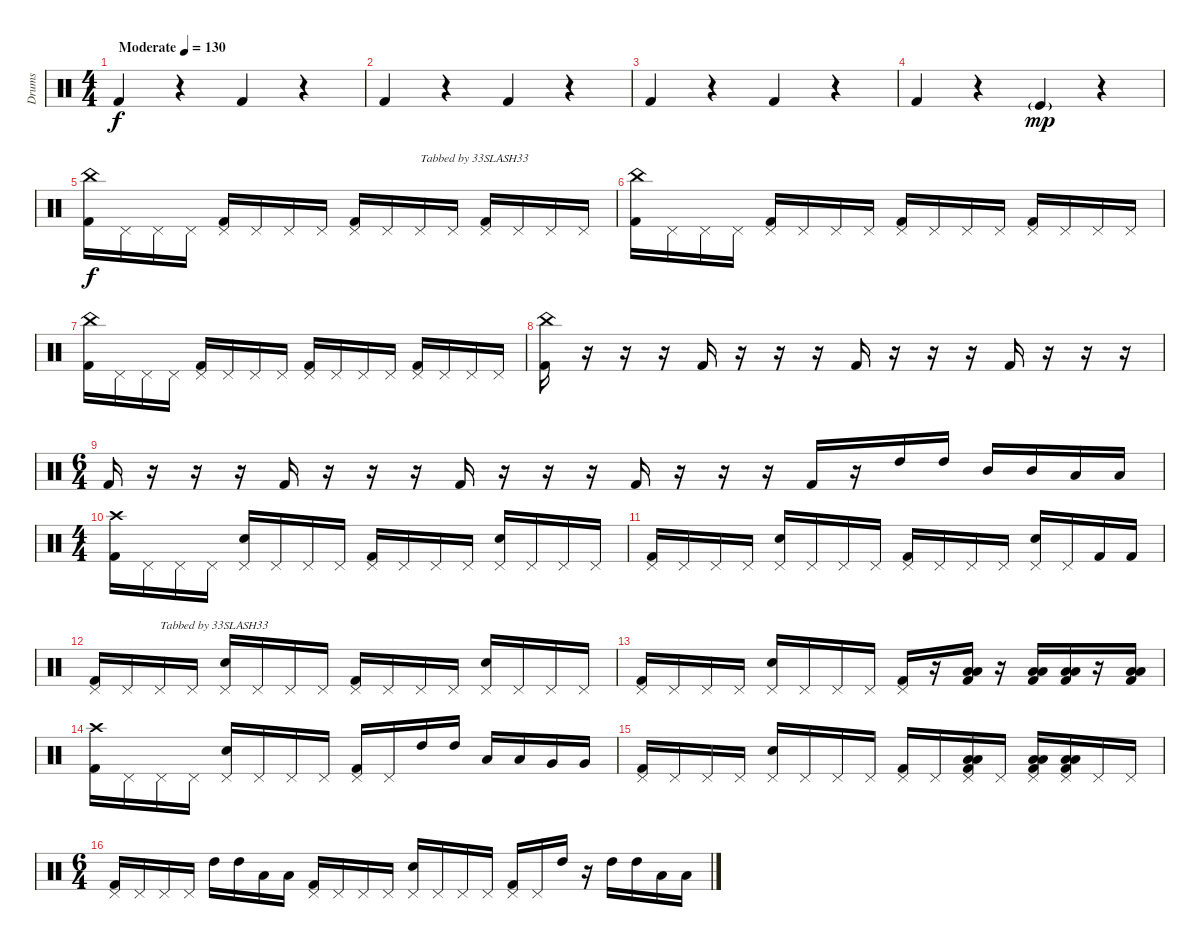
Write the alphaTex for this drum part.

\track ("Drums" "Drums") {instrument percussion}
\staff {score}
\articulation defaults
\ts (4 4)
\tempo (130 "Moderate")
\clef neutral
\ks c "Kick (hit) 2".4{dy f}
r.4 "Kick (hit) 2".4 r.4 |
"Kick (hit) 2".4 r.4 "Kick (hit) 2".4 r.4 |
"Kick (hit) 2".4 r.4 "Kick (hit) 2".4 r.4 |
"Kick (hit) 2".4 r.4 "Kick (hit)"{g}.4{dy mp} r.4 |
("China (hit)" "Kick (hit) 2").16{dy f} "Pedal Hi-Hat (hit)".16 "Pedal Hi-Hat (hit)".16 "Pedal Hi-Hat (hit)".16 ("Pedal Hi-Hat (hit)" "Kick (hit) 2").16 "Pedal Hi-Hat (hit)".16 "Pedal Hi-Hat (hit)".16 "Pedal Hi-Hat (hit)".16 ("Pedal Hi-Hat (hit)" "Kick (hit) 2").16 "Pedal Hi-Hat (hit)".16 "Pedal Hi-Hat (hit)".16{txt "Tabbed by 33SLASH33"} "Pedal Hi-Hat (hit)".16 ("Pedal Hi-Hat (hit)" "Kick (hit) 2").16 "Pedal Hi-Hat (hit)".16 "Pedal Hi-Hat (hit)".16 "Pedal Hi-Hat (hit)".16 |
("China (hit)" "Kick (hit) 2").16 "Pedal Hi-Hat (hit)".16 "Pedal Hi-Hat (hit)".16 "Pedal Hi-Hat (hit)".16 ("Pedal Hi-Hat (hit)" "Kick (hit) 2").16 "Pedal Hi-Hat (hit)".16 "Pedal Hi-Hat (hit)".16 "Pedal Hi-Hat (hit)".16 ("Pedal Hi-Hat (hit)" "Kick (hit) 2").16 "Pedal Hi-Hat (hit)".16 "Pedal Hi-Hat (hit)".16 "Pedal Hi-Hat (hit)".16 ("Pedal Hi-Hat (hit)" "Kick (hit) 2").16 "Pedal Hi-Hat (hit)".16 "Pedal Hi-Hat (hit)".16 "Pedal Hi-Hat (hit)".16 |
("China (hit)" "Kick (hit) 2").16 "Pedal Hi-Hat (hit)".16 "Pedal Hi-Hat (hit)".16 "Pedal Hi-Hat (hit)".16 ("Pedal Hi-Hat (hit)" "Kick (hit) 2").16 "Pedal Hi-Hat (hit)".16 "Pedal Hi-Hat (hit)".16 "Pedal Hi-Hat (hit)".16 ("Pedal Hi-Hat (hit)" "Kick (hit) 2").16 "Pedal Hi-Hat (hit)".16 "Pedal Hi-Hat (hit)".16 "Pedal Hi-Hat (hit)".16 ("Pedal Hi-Hat (hit)" "Kick (hit) 2").16 "Pedal Hi-Hat (hit)".16 "Pedal Hi-Hat (hit)".16 "Pedal Hi-Hat (hit)".16 |
("China (hit)" "Kick (hit) 2").16 r.16 r.16 r.16 "Kick (hit) 2".16 r.16 r.16 r.16 "Kick (hit) 2".16 r.16 r.16 r.16 "Kick (hit) 2".16 r.16 r.16 r.16 |
\ts (6 4)
"Kick (hit) 2".16 r.16 r.16 r.16 "Kick (hit) 2".16 r.16 r.16 r.16 "Kick (hit) 2".16 r.16 r.16 r.16 "Kick (hit) 2".16 r.16 r.16 r.16 "Kick (hit) 2".16 r.16 "High Tom (hit)".16 "High Tom (hit)".16 "Mid Tom (hit)".16 "Mid Tom (hit)".16 "Low Tom (hit)".16 "Low Tom (hit)".16 |
\ts (4 4)
("Crash high (hit)" "Kick (hit) 2").16 "Pedal Hi-Hat (hit)".16 "Pedal Hi-Hat (hit)".16 "Pedal Hi-Hat (hit)".16 ("Pedal Hi-Hat (hit)" "Snare (hit) 2").16 "Pedal Hi-Hat (hit)".16 "Pedal Hi-Hat (hit)".16 "Pedal Hi-Hat (hit)".16 ("Pedal Hi-Hat (hit)" "Kick (hit) 2").16 "Pedal Hi-Hat (hit)".16 "Pedal Hi-Hat (hit)".16 "Pedal Hi-Hat (hit)".16 ("Pedal Hi-Hat (hit)" "Snare (hit) 2").16 "Pedal Hi-Hat (hit)".16 "Pedal Hi-Hat (hit)".16 "Pedal Hi-Hat (hit)".16 |
("Pedal Hi-Hat (hit)" "Kick (hit) 2").16 "Pedal Hi-Hat (hit)".16 "Pedal Hi-Hat (hit)".16 "Pedal Hi-Hat (hit)".16 ("Pedal Hi-Hat (hit)" "Snare (hit) 2").16 "Pedal Hi-Hat (hit)".16 "Pedal Hi-Hat (hit)".16 "Pedal Hi-Hat (hit)".16 ("Pedal Hi-Hat (hit)" "Kick (hit) 2").16 "Pedal Hi-Hat (hit)".16 "Pedal Hi-Hat (hit)".16 "Pedal Hi-Hat (hit)".16 ("Pedal Hi-Hat (hit)" "Snare (hit) 2").16 "Pedal Hi-Hat (hit)".16 "Kick (hit) 2".16 "Kick (hit) 2".16 |
("Pedal Hi-Hat (hit)" "Kick (hit) 2").16 "Pedal Hi-Hat (hit)".16 "Pedal Hi-Hat (hit)".16{txt "Tabbed by 33SLASH33"} "Pedal Hi-Hat (hit)".16 ("Pedal Hi-Hat (hit)" "Snare (hit) 2").16 "Pedal Hi-Hat (hit)".16 "Pedal Hi-Hat (hit)".16 "Pedal Hi-Hat (hit)".16 ("Pedal Hi-Hat (hit)" "Kick (hit) 2").16 "Pedal Hi-Hat (hit)".16 "Pedal Hi-Hat (hit)".16 "Pedal Hi-Hat (hit)".16 ("Pedal Hi-Hat (hit)" "Snare (hit) 2").16 "Pedal Hi-Hat (hit)".16 "Pedal Hi-Hat (hit)".16 "Pedal Hi-Hat (hit)".16 |
("Pedal Hi-Hat (hit)" "Kick (hit) 2").16 "Pedal Hi-Hat (hit)".16 "Pedal Hi-Hat (hit)".16 "Pedal Hi-Hat (hit)".16 ("Pedal Hi-Hat (hit)" "Snare (hit) 2").16 "Pedal Hi-Hat (hit)".16 "Pedal Hi-Hat (hit)".16 "Pedal Hi-Hat (hit)".16 ("Pedal Hi-Hat (hit)" "Kick (hit) 2").16 r.16 ("Low Tom (hit)" "Low Floor Tom (hit)" "Kick (hit) 2").16 r.16 ("Low Tom (hit)" "Low Floor Tom (hit)" "Kick (hit) 2").16 ("Low Tom (hit)" "Low Floor Tom (hit)" "Kick (hit) 2").16 r.16 ("Low Tom (hit)" "Low Floor Tom (hit)" "Kick (hit) 2").16 |
("Crash high (hit)" "Kick (hit) 2").16 "Pedal Hi-Hat (hit)".16 "Pedal Hi-Hat (hit)".16 "Pedal Hi-Hat (hit)".16 ("Pedal Hi-Hat (hit)" "Snare (hit) 2").16 "Pedal Hi-Hat (hit)".16 "Pedal Hi-Hat (hit)".16 "Pedal Hi-Hat (hit)".16 ("Pedal Hi-Hat (hit)" "Kick (hit) 2").16 "Pedal Hi-Hat (hit)".16 "High Tom (hit)".16 "High Tom (hit)".16 "Low Tom (hit)".16 "Low Tom (hit)".16 "Very Low Tom (hit)".16 "Very Low Tom (hit)".16 |
("Pedal Hi-Hat (hit)" "Kick (hit) 2").16 "Pedal Hi-Hat (hit)".16 "Pedal Hi-Hat (hit)".16 "Pedal Hi-Hat (hit)".16 ("Pedal Hi-Hat (hit)" "Snare (hit) 2").16 "Pedal Hi-Hat (hit)".16 "Pedal Hi-Hat (hit)".16 "Pedal Hi-Hat (hit)".16 ("Pedal Hi-Hat (hit)" "Kick (hit) 2").16 "Pedal Hi-Hat (hit)".16 ("Pedal Hi-Hat (hit)" "Low Tom (hit)" "Low Floor Tom (hit)" "Kick (hit) 2").16 "Pedal Hi-Hat (hit)".16 ("Pedal Hi-Hat (hit)" "Low Tom (hit)" "Low Floor Tom (hit)" "Kick (hit) 2").16 ("Pedal Hi-Hat (hit)" "Low Tom (hit)" "Low Floor Tom (hit)" "Kick (hit) 2").16 "Pedal Hi-Hat (hit)".16 "Pedal Hi-Hat (hit)".16 |
\ts (6 4)
("Pedal Hi-Hat (hit)" "Kick (hit) 2").16 "Pedal Hi-Hat (hit)".16 "Pedal Hi-Hat (hit)".16 "Pedal Hi-Hat (hit)".16 "High Tom (hit)".16 "High Tom (hit)".16 "Low Tom (hit)".16 "Low Tom (hit)".16 ("Pedal Hi-Hat (hit)" "Kick (hit) 2").16 "Pedal Hi-Hat (hit)".16 "Pedal Hi-Hat (hit)".16 "Pedal Hi-Hat (hit)".16 ("Pedal Hi-Hat (hit)" "Snare (hit) 2").16 "Pedal Hi-Hat (hit)".16 "Pedal Hi-Hat (hit)".16 "Pedal Hi-Hat (hit)".16 ("Pedal Hi-Hat (hit)" "Kick (hit) 2").16 "Pedal Hi-Hat (hit)".16 "High Tom (hit)".16 r.16 "High Tom (hit)".16 "High Tom (hit)".16 "Low Tom (hit)".16 "Low Tom (hit)".16
